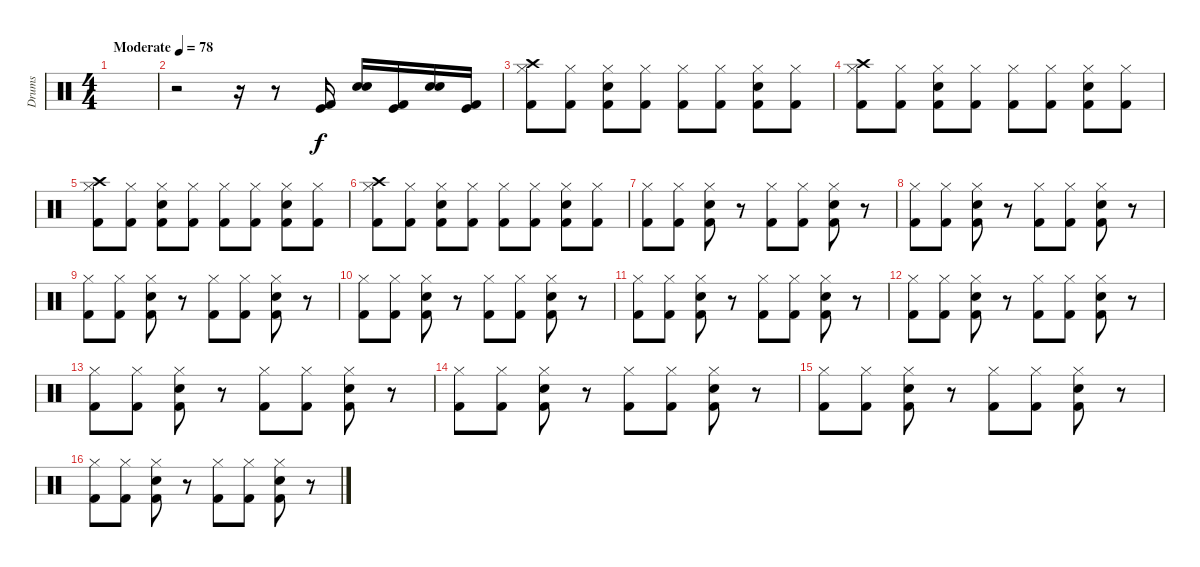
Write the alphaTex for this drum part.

\track ("Drums" "Drums") {instrument percussion}
\staff {score}
\articulation defaults
\ts (4 4)
\tempo (78 "Moderate")
\clef neutral
\ks c
|
r.2 r.16 r.8 ("Kick (hit) 2" "Kick (hit)").16 ("Electric Snare (hit)" "Snare (hit) 2").16 ("Kick (hit) 2" "Kick (hit)").16 ("Electric Snare (hit)" "Snare (hit) 2").16 ("Kick (hit) 2" "Kick (hit)").16 |
("Crash high (hit)" "Hi-Hat (closed)" "Kick (hit) 2").8 ("Hi-Hat (closed)" "Kick (hit) 2").8 ("Hi-Hat (closed)" "Kick (hit) 2" "Electric Snare (hit)").8 ("Hi-Hat (closed)" "Kick (hit) 2").8 ("Hi-Hat (closed)" "Kick (hit) 2").8 ("Hi-Hat (closed)" "Kick (hit) 2").8 ("Hi-Hat (closed)" "Kick (hit) 2" "Electric Snare (hit)").8 ("Hi-Hat (closed)" "Kick (hit) 2").8 |
("Crash high (hit)" "Hi-Hat (closed)" "Kick (hit) 2").8 ("Hi-Hat (closed)" "Kick (hit) 2").8 ("Hi-Hat (closed)" "Kick (hit) 2" "Electric Snare (hit)").8 ("Hi-Hat (closed)" "Kick (hit) 2").8 ("Hi-Hat (closed)" "Kick (hit) 2").8 ("Hi-Hat (closed)" "Kick (hit) 2").8 ("Hi-Hat (closed)" "Kick (hit) 2" "Electric Snare (hit)").8 ("Hi-Hat (closed)" "Kick (hit) 2").8 |
("Crash high (hit)" "Hi-Hat (closed)" "Kick (hit) 2").8 ("Hi-Hat (closed)" "Kick (hit) 2").8 ("Hi-Hat (closed)" "Kick (hit) 2" "Electric Snare (hit)").8 ("Hi-Hat (closed)" "Kick (hit) 2").8 ("Hi-Hat (closed)" "Kick (hit) 2").8 ("Hi-Hat (closed)" "Kick (hit) 2").8 ("Hi-Hat (closed)" "Kick (hit) 2" "Electric Snare (hit)").8 ("Hi-Hat (closed)" "Kick (hit) 2").8 |
("Crash high (hit)" "Hi-Hat (closed)" "Kick (hit) 2").8 ("Hi-Hat (closed)" "Kick (hit) 2").8 ("Hi-Hat (closed)" "Kick (hit) 2" "Electric Snare (hit)").8 ("Hi-Hat (closed)" "Kick (hit) 2").8 ("Hi-Hat (closed)" "Kick (hit) 2").8 ("Hi-Hat (closed)" "Kick (hit) 2").8 ("Hi-Hat (closed)" "Kick (hit) 2" "Electric Snare (hit)").8 ("Hi-Hat (closed)" "Kick (hit) 2").8 |
("Hi-Hat (closed)" "Kick (hit) 2").8 ("Hi-Hat (closed)" "Kick (hit) 2").8 ("Hi-Hat (closed)" "Kick (hit) 2" "Electric Snare (hit)").8 r.8 ("Hi-Hat (closed)" "Kick (hit) 2").8 ("Hi-Hat (closed)" "Kick (hit) 2").8 ("Hi-Hat (closed)" "Kick (hit) 2" "Electric Snare (hit)").8 r.8 |
("Hi-Hat (closed)" "Kick (hit) 2").8 ("Hi-Hat (closed)" "Kick (hit) 2").8 ("Hi-Hat (closed)" "Kick (hit) 2" "Electric Snare (hit)").8 r.8 ("Hi-Hat (closed)" "Kick (hit) 2").8 ("Hi-Hat (closed)" "Kick (hit) 2").8 ("Hi-Hat (closed)" "Kick (hit) 2" "Electric Snare (hit)").8 r.8 |
("Hi-Hat (closed)" "Kick (hit) 2").8 ("Hi-Hat (closed)" "Kick (hit) 2").8 ("Hi-Hat (closed)" "Kick (hit) 2" "Electric Snare (hit)").8 r.8 ("Hi-Hat (closed)" "Kick (hit) 2").8 ("Hi-Hat (closed)" "Kick (hit) 2").8 ("Hi-Hat (closed)" "Kick (hit) 2" "Electric Snare (hit)").8 r.8 |
("Hi-Hat (closed)" "Kick (hit) 2").8 ("Hi-Hat (closed)" "Kick (hit) 2").8 ("Hi-Hat (closed)" "Kick (hit) 2" "Electric Snare (hit)").8 r.8 ("Hi-Hat (closed)" "Kick (hit) 2").8 ("Hi-Hat (closed)" "Kick (hit) 2").8 ("Hi-Hat (closed)" "Kick (hit) 2" "Electric Snare (hit)").8 r.8 |
("Hi-Hat (closed)" "Kick (hit) 2").8 ("Hi-Hat (closed)" "Kick (hit) 2").8 ("Hi-Hat (closed)" "Kick (hit) 2" "Electric Snare (hit)").8 r.8 ("Hi-Hat (closed)" "Kick (hit) 2").8 ("Hi-Hat (closed)" "Kick (hit) 2").8 ("Hi-Hat (closed)" "Kick (hit) 2" "Electric Snare (hit)").8 r.8 |
("Hi-Hat (closed)" "Kick (hit) 2").8 ("Hi-Hat (closed)" "Kick (hit) 2").8 ("Hi-Hat (closed)" "Kick (hit) 2" "Electric Snare (hit)").8 r.8 ("Hi-Hat (closed)" "Kick (hit) 2").8 ("Hi-Hat (closed)" "Kick (hit) 2").8 ("Hi-Hat (closed)" "Kick (hit) 2" "Electric Snare (hit)").8 r.8 |
("Hi-Hat (closed)" "Kick (hit) 2").8 ("Hi-Hat (closed)" "Kick (hit) 2").8 ("Hi-Hat (closed)" "Kick (hit) 2" "Electric Snare (hit)").8 r.8 ("Hi-Hat (closed)" "Kick (hit) 2").8 ("Hi-Hat (closed)" "Kick (hit) 2").8 ("Hi-Hat (closed)" "Kick (hit) 2" "Electric Snare (hit)").8 r.8 |
("Hi-Hat (closed)" "Kick (hit) 2").8 ("Hi-Hat (closed)" "Kick (hit) 2").8 ("Hi-Hat (closed)" "Kick (hit) 2" "Electric Snare (hit)").8 r.8 ("Hi-Hat (closed)" "Kick (hit) 2").8 ("Hi-Hat (closed)" "Kick (hit) 2").8 ("Hi-Hat (closed)" "Kick (hit) 2" "Electric Snare (hit)").8 r.8 |
("Hi-Hat (closed)" "Kick (hit) 2").8 ("Hi-Hat (closed)" "Kick (hit) 2").8 ("Hi-Hat (closed)" "Kick (hit) 2" "Electric Snare (hit)").8 r.8 ("Hi-Hat (closed)" "Kick (hit) 2").8 ("Hi-Hat (closed)" "Kick (hit) 2").8 ("Hi-Hat (closed)" "Kick (hit) 2" "Electric Snare (hit)").8 r.8 |
("Hi-Hat (closed)" "Kick (hit) 2").8 ("Hi-Hat (closed)" "Kick (hit) 2").8 ("Hi-Hat (closed)" "Kick (hit) 2" "Electric Snare (hit)").8 r.8 ("Hi-Hat (closed)" "Kick (hit) 2").8 ("Hi-Hat (closed)" "Kick (hit) 2").8 ("Hi-Hat (closed)" "Kick (hit) 2" "Electric Snare (hit)").8 r.8
